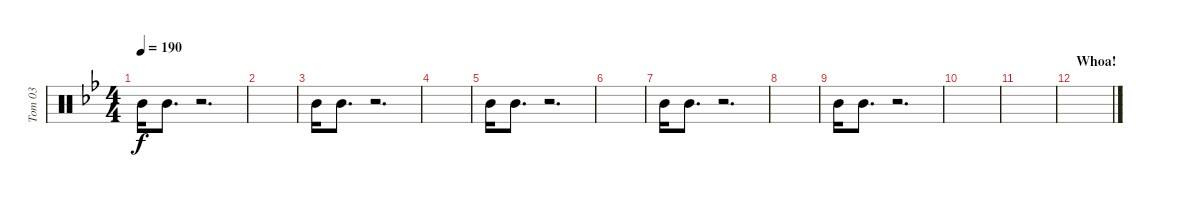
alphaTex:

\track ("Tom 03" "Tom 03") {instrument percussion}
\staff {score}
\articulation defaults
\ts (4 4)
\tempo 190
\clef neutral
\ks bb "Mid Tom (hit)".16{dy f} "Mid Tom (hit)".8{d}
r.2{d} |
|
"Mid Tom (hit)".16 "Mid Tom (hit)".8{d} r.2{d} |
|
"Mid Tom (hit)".16 "Mid Tom (hit)".8{d} r.2{d} |
|
"Mid Tom (hit)".16 "Mid Tom (hit)".8{d} r.2{d} |
|
"Mid Tom (hit)".16 "Mid Tom (hit)".8{d} r.2{d} |
|
|
\section ("" "Whoa!")
